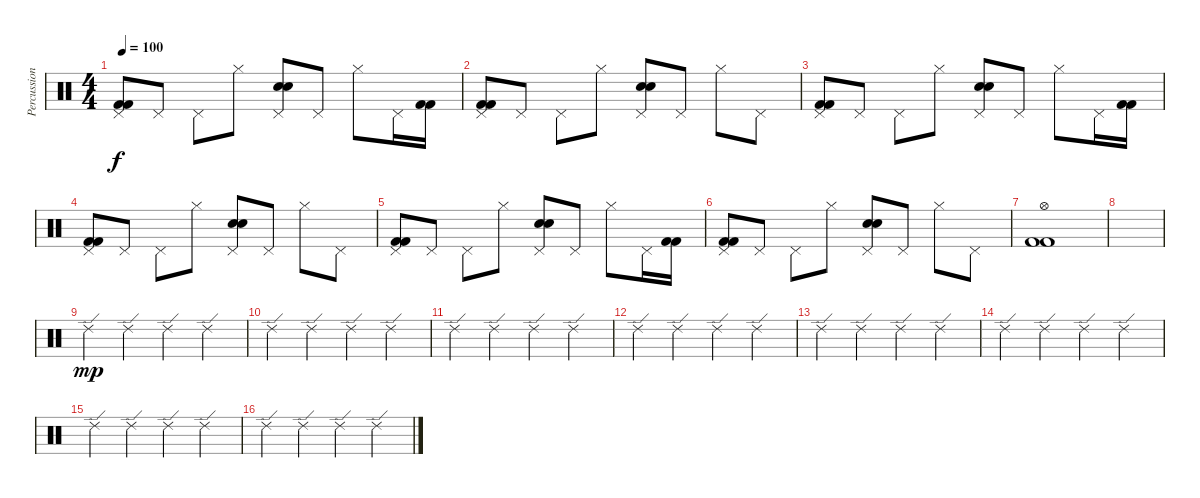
\track ("Percussioni" "Percussion") {instrument percussion}
\staff {score}
\articulation defaults
\ts (4 4)
\tempo 100
\clef neutral
\ks c
("Pedal Hi-Hat (hit)" "Kick (hit) 2" "Kick (hit) 2").8{dy f} "Pedal Hi-Hat (hit)".8 "Pedal Hi-Hat (hit)".8 "Hi-Hat (closed)".8 ("Pedal Hi-Hat (hit)" "Snare (hit) 2" "Snare (hit) 2").8 "Pedal Hi-Hat (hit)".8 "Hi-Hat (closed)".8 "Pedal Hi-Hat (hit)".16 ("Kick (hit) 2" "Kick (hit) 2").16 |
("Pedal Hi-Hat (hit)" "Kick (hit) 2" "Kick (hit) 2").8 "Pedal Hi-Hat (hit)".8 "Pedal Hi-Hat (hit)".8 "Hi-Hat (closed)".8 ("Pedal Hi-Hat (hit)" "Snare (hit) 2" "Snare (hit) 2").8 "Pedal Hi-Hat (hit)".8 "Hi-Hat (closed)".8 "Pedal Hi-Hat (hit)".8 |
("Pedal Hi-Hat (hit)" "Kick (hit) 2" "Kick (hit) 2").8 "Pedal Hi-Hat (hit)".8 "Pedal Hi-Hat (hit)".8 "Hi-Hat (closed)".8 ("Pedal Hi-Hat (hit)" "Snare (hit) 2" "Snare (hit) 2").8 "Pedal Hi-Hat (hit)".8 "Hi-Hat (closed)".8 "Pedal Hi-Hat (hit)".16 ("Kick (hit) 2" "Kick (hit) 2").16 |
("Pedal Hi-Hat (hit)" "Kick (hit) 2" "Kick (hit) 2").8 "Pedal Hi-Hat (hit)".8 "Pedal Hi-Hat (hit)".8 "Hi-Hat (closed)".8 ("Pedal Hi-Hat (hit)" "Snare (hit) 2" "Snare (hit) 2").8 "Pedal Hi-Hat (hit)".8 "Hi-Hat (closed)".8 "Pedal Hi-Hat (hit)".8 |
("Pedal Hi-Hat (hit)" "Kick (hit) 2" "Kick (hit) 2").8 "Pedal Hi-Hat (hit)".8 "Pedal Hi-Hat (hit)".8 "Hi-Hat (closed)".8 ("Pedal Hi-Hat (hit)" "Snare (hit) 2" "Snare (hit) 2").8 "Pedal Hi-Hat (hit)".8 "Hi-Hat (closed)".8 "Pedal Hi-Hat (hit)".16 ("Kick (hit) 2" "Kick (hit) 2").16 |
("Pedal Hi-Hat (hit)" "Kick (hit) 2" "Kick (hit) 2").8 "Pedal Hi-Hat (hit)".8 "Pedal Hi-Hat (hit)".8 "Hi-Hat (closed)".8 ("Pedal Hi-Hat (hit)" "Snare (hit) 2" "Snare (hit) 2").8 "Pedal Hi-Hat (hit)".8 "Hi-Hat (closed)".8 "Pedal Hi-Hat (hit)".8 |
("Hi-Hat (open)" "Kick (hit) 2" "Kick (hit) 2").1 |
|
"Ride (edge) 2".4{dy mp} "Ride (edge) 2".4 "Ride (edge) 2".4 "Ride (edge) 2".4 |
"Ride (edge) 2".4 "Ride (edge) 2".4 "Ride (edge) 2".4 "Ride (edge) 2".4 |
"Ride (edge) 2".4 "Ride (edge) 2".4 "Ride (edge) 2".4 "Ride (edge) 2".4 |
"Ride (edge) 2".4 "Ride (edge) 2".4 "Ride (edge) 2".4 "Ride (edge) 2".4 |
"Ride (edge) 2".4 "Ride (edge) 2".4 "Ride (edge) 2".4 "Ride (edge) 2".4 |
"Ride (edge) 2".4 "Ride (edge) 2".4 "Ride (edge) 2".4 "Ride (edge) 2".4 |
"Ride (edge) 2".4 "Ride (edge) 2".4 "Ride (edge) 2".4 "Ride (edge) 2".4 |
"Ride (edge) 2".4 "Ride (edge) 2".4 "Ride (edge) 2".4 "Ride (edge) 2".4
